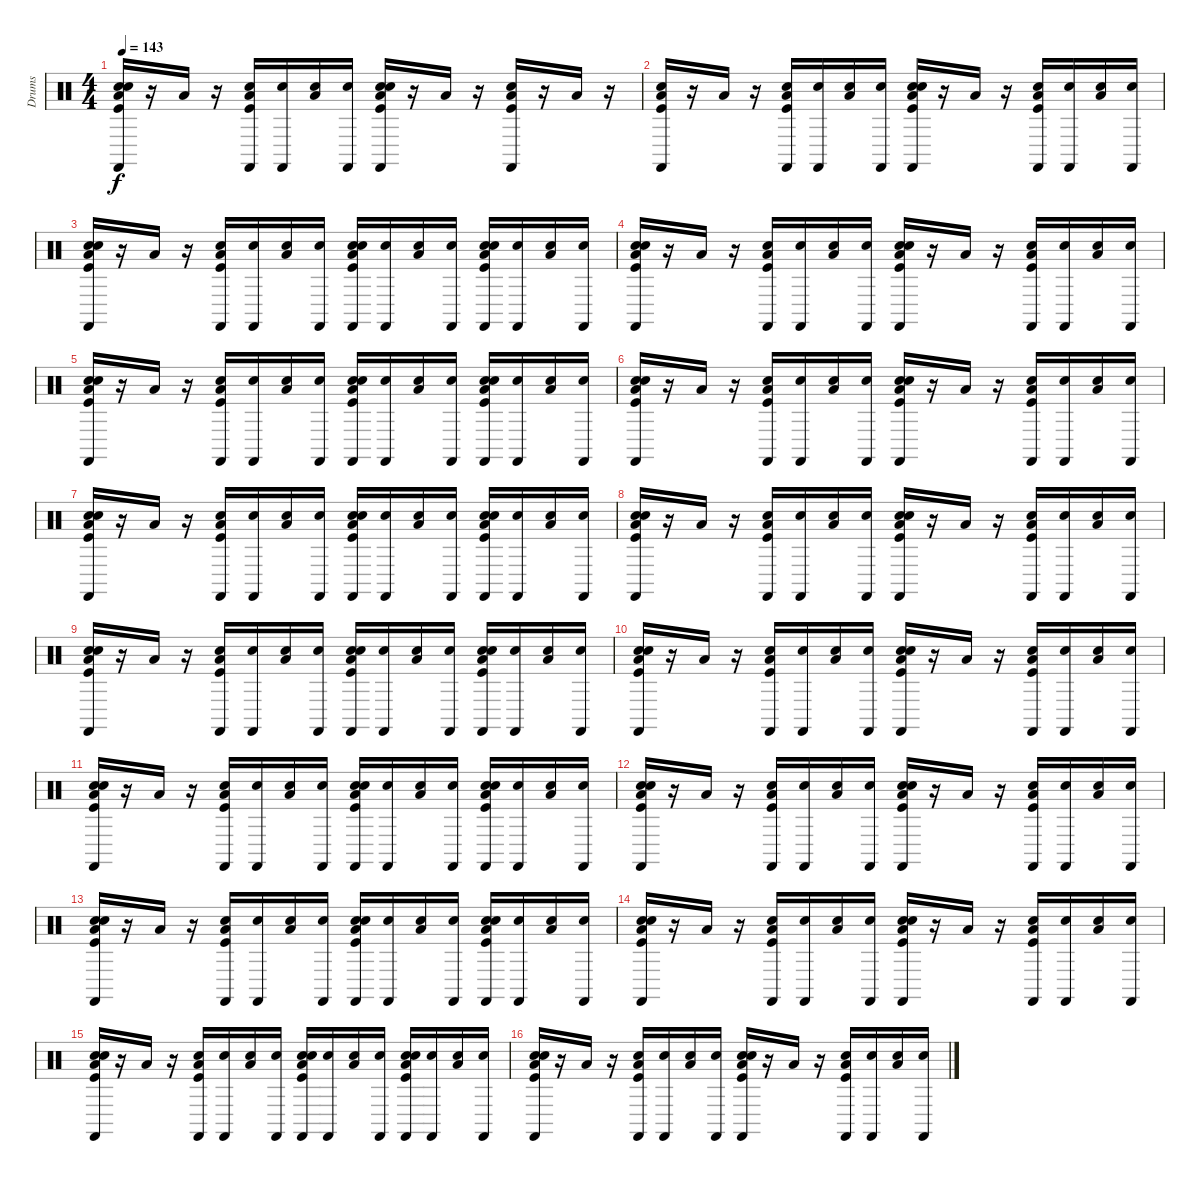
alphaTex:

\track ("Drums" "Drums") {instrument percussion}
\staff {score}
\articulation defaults
\ts (4 4)
\tempo 143
\clef neutral
\ks c
("Snare (hit)" "Low Tom (hit)" "Electric Snare (hit)" "Kick (hit)" "Castanets (hit)").16{dy f} r.16 "Low Tom (hit)".16 r.16 ("Low Tom (hit)" "Electric Snare (hit)" "Kick (hit)" "Castanets (hit)").16 ("Snare (hit)" "Castanets (hit)").16 ("Snare (hit)" "Low Tom (hit)").16 ("Snare (hit)" "Castanets (hit)").16 ("Snare (hit)" "Low Tom (hit)" "Electric Snare (hit)" "Kick (hit)" "Castanets (hit)").16 r.16 "Low Tom (hit)".16 r.16 ("Low Tom (hit)" "Electric Snare (hit)" "Kick (hit)" "Castanets (hit)").16 r.16 "Low Tom (hit)".16 r.16 |
("Low Tom (hit)" "Electric Snare (hit)" "Kick (hit)" "Castanets (hit)").16 r.16 "Low Tom (hit)".16 r.16 ("Low Tom (hit)" "Electric Snare (hit)" "Kick (hit)" "Castanets (hit)").16 ("Snare (hit)" "Castanets (hit)").16 ("Snare (hit)" "Low Tom (hit)").16 ("Snare (hit)" "Castanets (hit)").16 ("Snare (hit)" "Low Tom (hit)" "Electric Snare (hit)" "Kick (hit)" "Castanets (hit)").16 r.16 "Low Tom (hit)".16 r.16 ("Low Tom (hit)" "Electric Snare (hit)" "Kick (hit)" "Castanets (hit)").16 ("Snare (hit)" "Castanets (hit)").16 ("Snare (hit)" "Low Tom (hit)").16 ("Snare (hit)" "Castanets (hit)").16 |
("Snare (hit)" "Low Tom (hit)" "Electric Snare (hit)" "Kick (hit)" "Castanets (hit)").16 r.16 "Low Tom (hit)".16 r.16 ("Low Tom (hit)" "Electric Snare (hit)" "Kick (hit)" "Castanets (hit)").16 ("Snare (hit)" "Castanets (hit)").16 ("Snare (hit)" "Low Tom (hit)").16 ("Snare (hit)" "Castanets (hit)").16 ("Snare (hit)" "Low Tom (hit)" "Electric Snare (hit)" "Kick (hit)" "Castanets (hit)").16 ("Snare (hit)" "Castanets (hit)").16 ("Snare (hit)" "Low Tom (hit)").16 ("Snare (hit)" "Castanets (hit)").16 ("Snare (hit)" "Low Tom (hit)" "Electric Snare (hit)" "Kick (hit)" "Castanets (hit)").16 ("Snare (hit)" "Castanets (hit)").16 ("Snare (hit)" "Low Tom (hit)").16 ("Snare (hit)" "Castanets (hit)").16 |
("Snare (hit)" "Low Tom (hit)" "Electric Snare (hit)" "Kick (hit)" "Castanets (hit)").16 r.16 "Low Tom (hit)".16 r.16 ("Low Tom (hit)" "Electric Snare (hit)" "Kick (hit)" "Castanets (hit)").16 ("Snare (hit)" "Castanets (hit)").16 ("Snare (hit)" "Low Tom (hit)").16 ("Snare (hit)" "Castanets (hit)").16 ("Snare (hit)" "Low Tom (hit)" "Electric Snare (hit)" "Kick (hit)" "Castanets (hit)").16 r.16 "Low Tom (hit)".16 r.16 ("Low Tom (hit)" "Electric Snare (hit)" "Kick (hit)" "Castanets (hit)").16 ("Snare (hit)" "Castanets (hit)").16 ("Snare (hit)" "Low Tom (hit)").16 ("Snare (hit)" "Castanets (hit)").16 |
("Snare (hit)" "Low Tom (hit)" "Electric Snare (hit)" "Kick (hit)" "Castanets (hit)").16 r.16 "Low Tom (hit)".16 r.16 ("Low Tom (hit)" "Electric Snare (hit)" "Kick (hit)" "Castanets (hit)").16 ("Snare (hit)" "Castanets (hit)").16 ("Snare (hit)" "Low Tom (hit)").16 ("Snare (hit)" "Castanets (hit)").16 ("Snare (hit)" "Low Tom (hit)" "Electric Snare (hit)" "Kick (hit)" "Castanets (hit)").16 ("Snare (hit)" "Castanets (hit)").16 ("Snare (hit)" "Low Tom (hit)").16 ("Snare (hit)" "Castanets (hit)").16 ("Snare (hit)" "Low Tom (hit)" "Electric Snare (hit)" "Kick (hit)" "Castanets (hit)").16 ("Snare (hit)" "Castanets (hit)").16 ("Snare (hit)" "Low Tom (hit)").16 ("Snare (hit)" "Castanets (hit)").16 |
("Snare (hit)" "Low Tom (hit)" "Electric Snare (hit)" "Kick (hit)" "Castanets (hit)").16 r.16 "Low Tom (hit)".16 r.16 ("Low Tom (hit)" "Electric Snare (hit)" "Kick (hit)" "Castanets (hit)").16 ("Snare (hit)" "Castanets (hit)").16 ("Snare (hit)" "Low Tom (hit)").16 ("Snare (hit)" "Castanets (hit)").16 ("Snare (hit)" "Low Tom (hit)" "Electric Snare (hit)" "Kick (hit)" "Castanets (hit)").16 r.16 "Low Tom (hit)".16 r.16 ("Low Tom (hit)" "Electric Snare (hit)" "Kick (hit)" "Castanets (hit)").16 ("Snare (hit)" "Castanets (hit)").16 ("Snare (hit)" "Low Tom (hit)").16 ("Snare (hit)" "Castanets (hit)").16 |
("Snare (hit)" "Low Tom (hit)" "Electric Snare (hit)" "Kick (hit)" "Castanets (hit)").16 r.16 "Low Tom (hit)".16 r.16 ("Low Tom (hit)" "Electric Snare (hit)" "Kick (hit)" "Castanets (hit)").16 ("Snare (hit)" "Castanets (hit)").16 ("Snare (hit)" "Low Tom (hit)").16 ("Snare (hit)" "Castanets (hit)").16 ("Snare (hit)" "Low Tom (hit)" "Electric Snare (hit)" "Kick (hit)" "Castanets (hit)").16 ("Snare (hit)" "Castanets (hit)").16 ("Snare (hit)" "Low Tom (hit)").16 ("Snare (hit)" "Castanets (hit)").16 ("Snare (hit)" "Low Tom (hit)" "Electric Snare (hit)" "Kick (hit)" "Castanets (hit)").16 ("Snare (hit)" "Castanets (hit)").16 ("Snare (hit)" "Low Tom (hit)").16 ("Snare (hit)" "Castanets (hit)").16 |
("Snare (hit)" "Low Tom (hit)" "Electric Snare (hit)" "Kick (hit)" "Castanets (hit)").16 r.16 "Low Tom (hit)".16 r.16 ("Low Tom (hit)" "Electric Snare (hit)" "Kick (hit)" "Castanets (hit)").16 ("Snare (hit)" "Castanets (hit)").16 ("Snare (hit)" "Low Tom (hit)").16 ("Snare (hit)" "Castanets (hit)").16 ("Snare (hit)" "Low Tom (hit)" "Electric Snare (hit)" "Kick (hit)" "Castanets (hit)").16 r.16 "Low Tom (hit)".16 r.16 ("Low Tom (hit)" "Electric Snare (hit)" "Kick (hit)" "Castanets (hit)").16 ("Snare (hit)" "Castanets (hit)").16 ("Snare (hit)" "Low Tom (hit)").16 ("Snare (hit)" "Castanets (hit)").16 |
("Snare (hit)" "Low Tom (hit)" "Electric Snare (hit)" "Kick (hit)" "Castanets (hit)").16 r.16 "Low Tom (hit)".16 r.16 ("Low Tom (hit)" "Electric Snare (hit)" "Kick (hit)" "Castanets (hit)").16 ("Snare (hit)" "Castanets (hit)").16 ("Snare (hit)" "Low Tom (hit)").16 ("Snare (hit)" "Castanets (hit)").16 ("Snare (hit)" "Low Tom (hit)" "Electric Snare (hit)" "Kick (hit)" "Castanets (hit)").16 ("Snare (hit)" "Castanets (hit)").16 ("Snare (hit)" "Low Tom (hit)").16 ("Snare (hit)" "Castanets (hit)").16 ("Snare (hit)" "Low Tom (hit)" "Electric Snare (hit)" "Kick (hit)" "Castanets (hit)").16 ("Snare (hit)" "Castanets (hit)").16 ("Snare (hit)" "Low Tom (hit)").16 ("Snare (hit)" "Castanets (hit)").16 |
("Snare (hit)" "Low Tom (hit)" "Electric Snare (hit)" "Kick (hit)" "Castanets (hit)").16 r.16 "Low Tom (hit)".16 r.16 ("Low Tom (hit)" "Electric Snare (hit)" "Kick (hit)" "Castanets (hit)").16 ("Snare (hit)" "Castanets (hit)").16 ("Snare (hit)" "Low Tom (hit)").16 ("Snare (hit)" "Castanets (hit)").16 ("Snare (hit)" "Low Tom (hit)" "Electric Snare (hit)" "Kick (hit)" "Castanets (hit)").16 r.16 "Low Tom (hit)".16 r.16 ("Low Tom (hit)" "Electric Snare (hit)" "Kick (hit)" "Castanets (hit)").16 ("Snare (hit)" "Castanets (hit)").16 ("Snare (hit)" "Low Tom (hit)").16 ("Snare (hit)" "Castanets (hit)").16 |
("Snare (hit)" "Low Tom (hit)" "Electric Snare (hit)" "Kick (hit)" "Castanets (hit)").16 r.16 "Low Tom (hit)".16 r.16 ("Low Tom (hit)" "Electric Snare (hit)" "Kick (hit)" "Castanets (hit)").16 ("Snare (hit)" "Castanets (hit)").16 ("Snare (hit)" "Low Tom (hit)").16 ("Snare (hit)" "Castanets (hit)").16 ("Snare (hit)" "Low Tom (hit)" "Electric Snare (hit)" "Kick (hit)" "Castanets (hit)").16 ("Snare (hit)" "Castanets (hit)").16 ("Snare (hit)" "Low Tom (hit)").16 ("Snare (hit)" "Castanets (hit)").16 ("Snare (hit)" "Low Tom (hit)" "Electric Snare (hit)" "Kick (hit)" "Castanets (hit)").16 ("Snare (hit)" "Castanets (hit)").16 ("Snare (hit)" "Low Tom (hit)").16 ("Snare (hit)" "Castanets (hit)").16 |
("Snare (hit)" "Low Tom (hit)" "Electric Snare (hit)" "Kick (hit)" "Castanets (hit)").16 r.16 "Low Tom (hit)".16 r.16 ("Low Tom (hit)" "Electric Snare (hit)" "Kick (hit)" "Castanets (hit)").16 ("Snare (hit)" "Castanets (hit)").16 ("Snare (hit)" "Low Tom (hit)").16 ("Snare (hit)" "Castanets (hit)").16 ("Snare (hit)" "Low Tom (hit)" "Electric Snare (hit)" "Kick (hit)" "Castanets (hit)").16 r.16 "Low Tom (hit)".16 r.16 ("Low Tom (hit)" "Electric Snare (hit)" "Kick (hit)" "Castanets (hit)").16 ("Snare (hit)" "Castanets (hit)").16 ("Snare (hit)" "Low Tom (hit)").16 ("Snare (hit)" "Castanets (hit)").16 |
("Snare (hit)" "Low Tom (hit)" "Electric Snare (hit)" "Kick (hit)" "Castanets (hit)").16 r.16 "Low Tom (hit)".16 r.16 ("Low Tom (hit)" "Electric Snare (hit)" "Kick (hit)" "Castanets (hit)").16 ("Snare (hit)" "Castanets (hit)").16 ("Snare (hit)" "Low Tom (hit)").16 ("Snare (hit)" "Castanets (hit)").16 ("Snare (hit)" "Low Tom (hit)" "Electric Snare (hit)" "Kick (hit)" "Castanets (hit)").16 ("Snare (hit)" "Castanets (hit)").16 ("Snare (hit)" "Low Tom (hit)").16 ("Snare (hit)" "Castanets (hit)").16 ("Snare (hit)" "Low Tom (hit)" "Electric Snare (hit)" "Kick (hit)" "Castanets (hit)").16 ("Snare (hit)" "Castanets (hit)").16 ("Snare (hit)" "Low Tom (hit)").16 ("Snare (hit)" "Castanets (hit)").16 |
("Snare (hit)" "Low Tom (hit)" "Electric Snare (hit)" "Kick (hit)" "Castanets (hit)").16 r.16 "Low Tom (hit)".16 r.16 ("Low Tom (hit)" "Electric Snare (hit)" "Kick (hit)" "Castanets (hit)").16 ("Snare (hit)" "Castanets (hit)").16 ("Snare (hit)" "Low Tom (hit)").16 ("Snare (hit)" "Castanets (hit)").16 ("Snare (hit)" "Low Tom (hit)" "Electric Snare (hit)" "Kick (hit)" "Castanets (hit)").16 r.16 "Low Tom (hit)".16 r.16 ("Low Tom (hit)" "Electric Snare (hit)" "Kick (hit)" "Castanets (hit)").16 ("Snare (hit)" "Castanets (hit)").16 ("Snare (hit)" "Low Tom (hit)").16 ("Snare (hit)" "Castanets (hit)").16 |
("Snare (hit)" "Low Tom (hit)" "Electric Snare (hit)" "Kick (hit)" "Castanets (hit)").16 r.16 "Low Tom (hit)".16 r.16 ("Low Tom (hit)" "Electric Snare (hit)" "Kick (hit)" "Castanets (hit)").16 ("Snare (hit)" "Castanets (hit)").16 ("Snare (hit)" "Low Tom (hit)").16 ("Snare (hit)" "Castanets (hit)").16 ("Snare (hit)" "Low Tom (hit)" "Electric Snare (hit)" "Kick (hit)" "Castanets (hit)").16 ("Snare (hit)" "Castanets (hit)").16 ("Snare (hit)" "Low Tom (hit)").16 ("Snare (hit)" "Castanets (hit)").16 ("Snare (hit)" "Low Tom (hit)" "Electric Snare (hit)" "Kick (hit)" "Castanets (hit)").16 ("Snare (hit)" "Castanets (hit)").16 ("Snare (hit)" "Low Tom (hit)").16 ("Snare (hit)" "Castanets (hit)").16 |
("Snare (hit)" "Low Tom (hit)" "Electric Snare (hit)" "Kick (hit)" "Castanets (hit)").16 r.16 "Low Tom (hit)".16 r.16 ("Low Tom (hit)" "Electric Snare (hit)" "Kick (hit)" "Castanets (hit)").16 ("Snare (hit)" "Castanets (hit)").16 ("Snare (hit)" "Low Tom (hit)").16 ("Snare (hit)" "Castanets (hit)").16 ("Snare (hit)" "Low Tom (hit)" "Electric Snare (hit)" "Kick (hit)" "Castanets (hit)").16 r.16 "Low Tom (hit)".16 r.16 ("Low Tom (hit)" "Electric Snare (hit)" "Kick (hit)" "Castanets (hit)").16 ("Snare (hit)" "Castanets (hit)").16 ("Snare (hit)" "Low Tom (hit)").16 ("Snare (hit)" "Castanets (hit)").16
